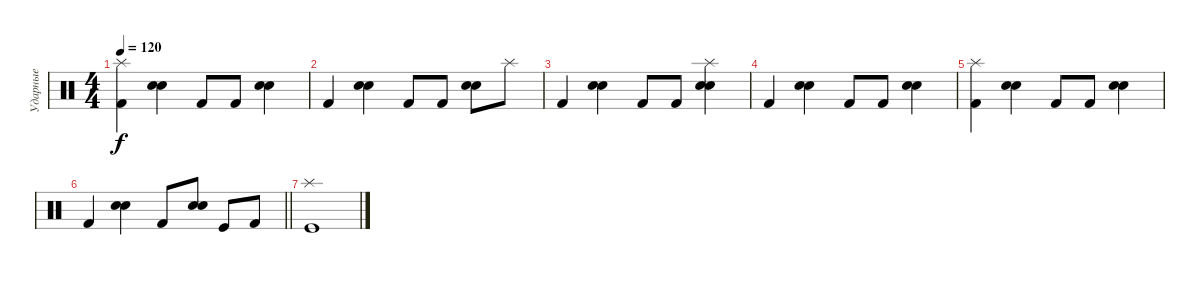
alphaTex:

\track ("Ударные" "Ударные") {instrument percussion}
\staff {score}
\articulation defaults
\ts (4 4)
\tempo 120
\clef neutral
\ks c
("Splash (hit)" "Kick (hit) 2").4{dy f} ("Electric Snare (hit)" "Snare (hit) 2").4 "Kick (hit) 2".8 "Kick (hit) 2".8 ("Electric Snare (hit)" "Snare (hit) 2").4 |
"Kick (hit) 2".4 ("Electric Snare (hit)" "Snare (hit) 2").4 "Kick (hit) 2".8 "Kick (hit) 2".8 ("Electric Snare (hit)" "Snare (hit) 2").8 "Splash (hit)".8 |
"Kick (hit) 2".4 ("Electric Snare (hit)" "Snare (hit) 2").4 "Kick (hit) 2".8 "Kick (hit) 2".8 ("Splash (hit)" "Electric Snare (hit)" "Snare (hit) 2").4 |
"Kick (hit) 2".4 ("Electric Snare (hit)" "Snare (hit) 2").4 "Kick (hit) 2".8 "Kick (hit) 2".8 ("Electric Snare (hit)" "Snare (hit) 2").4 |
("Splash (hit)" "Kick (hit) 2").4 ("Electric Snare (hit)" "Snare (hit) 2").4 "Kick (hit) 2".8 "Kick (hit) 2".8 ("Electric Snare (hit)" "Snare (hit) 2").4 |
\barLineRight lightlight "Kick (hit) 2".4
("Electric Snare (hit)" "Snare (hit) 2").4 "Kick (hit) 2".8 ("Electric Snare (hit)" "Snare (hit) 2").8 "Kick (hit)".8 "Kick (hit) 2".8 |
("Splash (hit)" "Kick (hit)").1
